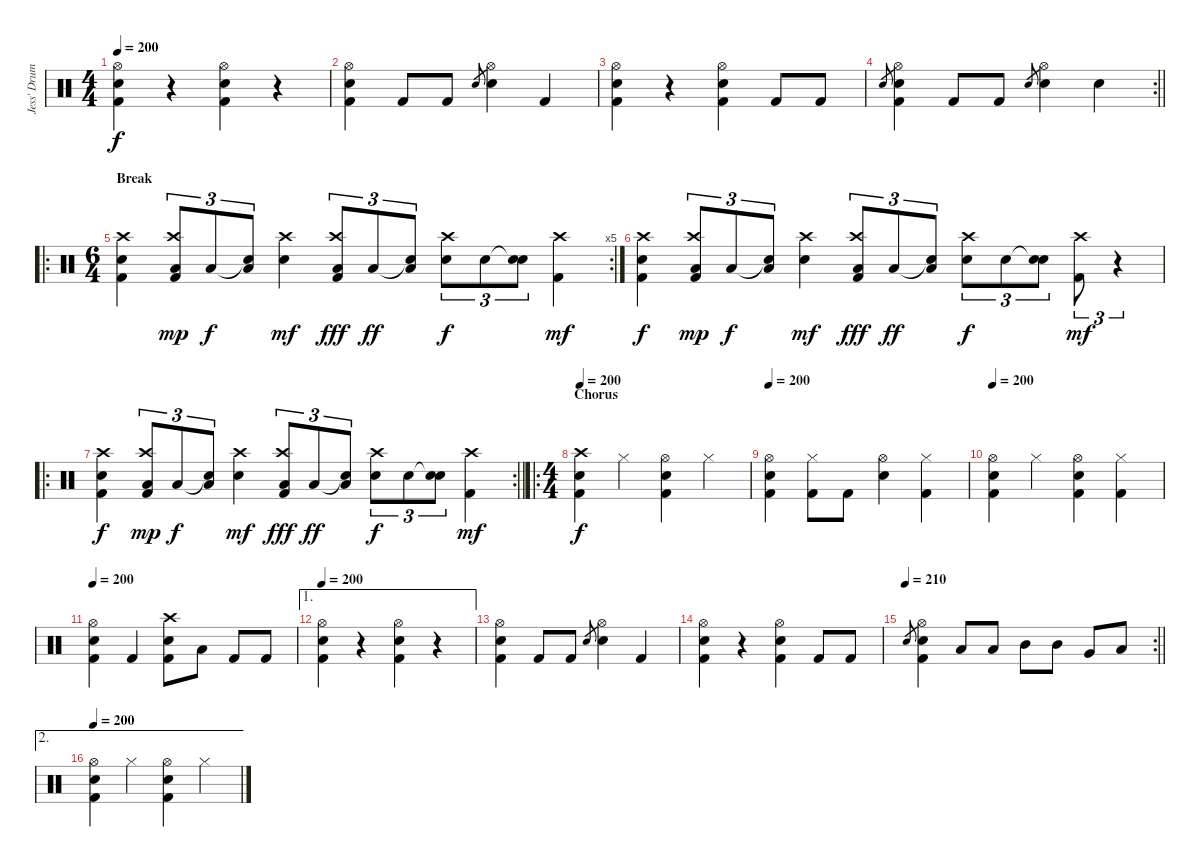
\track ("Jess' Drums" "Jess' Drum") {instrument percussion}
\staff {score}
\articulation defaults
\ts (4 4)
\tempo 200
\clef neutral
\ks c
("Hi-Hat (open)" "Snare (hit) 2" "Kick (hit) 2").4{dy f} r.4 ("Hi-Hat (open)" "Snare (hit) 2" "Kick (hit) 2").4 r.4 |
("Hi-Hat (open)" "Snare (hit) 2" "Kick (hit) 2").4 "Kick (hit) 2".8 "Kick (hit) 2".8 "Snare (hit) 2".8{gr} ("Hi-Hat (open)" "Snare (hit) 2").4 "Kick (hit) 2".4 |
("Hi-Hat (open)" "Snare (hit) 2" "Kick (hit) 2").4 r.4 ("Hi-Hat (open)" "Snare (hit) 2" "Kick (hit) 2").4 "Kick (hit) 2".8 "Kick (hit) 2".8 |
\rc 2
\barLineRight lightlight "Snare (hit) 2".8{gr}
("Hi-Hat (open)" "Snare (hit) 2" "Kick (hit) 2").4 "Kick (hit) 2".8 "Kick (hit) 2".8 "Snare (hit) 2".8{gr} ("Hi-Hat (open)" "Snare (hit) 2").4 "Snare (hit) 2".4 |
\ro
\rc 5
\ts (6 4)
\section ("" "Break")
("Crash high (hit)" "Snare (hit) 2" "Kick (hit) 2").4 ("Crash high (hit)" "Low Floor Tom (hit)" "Kick (hit) 2").8{tu (3 2) dy mp} "Low Floor Tom (hit)".8{tu (3 2) dy f} ("Snare (hit)"{t} "Low Floor Tom (hit)").8{tu (3 2)} ("Crash high (hit)" "Snare (hit) 2").4{dy mf} ("Crash high (hit)" "Low Floor Tom (hit)" "Kick (hit) 2").8{tu (3 2) dy fff} "Low Floor Tom (hit)".8{tu (3 2) dy ff} ("Snare (hit)"{t} "Low Floor Tom (hit)").8{tu (3 2)} ("Crash high (hit)" "Snare (hit) 2").8{tu (3 2) dy f} "Snare (hit) 2".8{tu (3 2)} ("Snare (hit)"{t} "Snare (hit) 2").8{tu (3 2)} ("Crash high (hit)" "Kick (hit) 2").4{dy mf} |
("Crash high (hit)" "Snare (hit) 2" "Kick (hit) 2").4{dy f} ("Crash high (hit)" "Low Floor Tom (hit)" "Kick (hit) 2").8{tu (3 2) dy mp} "Low Floor Tom (hit)".8{tu (3 2) dy f} ("Snare (hit)"{t} "Low Floor Tom (hit)").8{tu (3 2)} ("Crash high (hit)" "Snare (hit) 2").4{dy mf} ("Crash high (hit)" "Low Floor Tom (hit)" "Kick (hit) 2").8{tu (3 2) dy fff} "Low Floor Tom (hit)".8{tu (3 2) dy ff} ("Snare (hit)"{t} "Low Floor Tom (hit)").8{tu (3 2)} ("Crash high (hit)" "Snare (hit) 2").8{tu (3 2) dy f} "Snare (hit) 2".8{tu (3 2)} ("Snare (hit)"{t} "Snare (hit) 2").8{tu (3 2)} ("Crash high (hit)" "Kick (hit) 2").8{tu (3 2) dy mf} r.4{tu (3 2)} |
\ro
\rc 2
\barLineRight lightlight
("Crash high (hit)" "Snare (hit) 2" "Kick (hit) 2").4{dy f} ("Crash high (hit)" "Low Floor Tom (hit)" "Kick (hit) 2").8{tu (3 2) dy mp} "Low Floor Tom (hit)".8{tu (3 2) dy f} ("Snare (hit)"{t} "Low Floor Tom (hit)").8{tu (3 2)} ("Crash high (hit)" "Snare (hit) 2").4{dy mf} ("Crash high (hit)" "Low Floor Tom (hit)" "Kick (hit) 2").8{tu (3 2) dy fff} "Low Floor Tom (hit)".8{tu (3 2) dy ff} ("Snare (hit)"{t} "Low Floor Tom (hit)").8{tu (3 2)} ("Crash high (hit)" "Snare (hit) 2").8{tu (3 2) dy f} "Snare (hit) 2".8{tu (3 2)} ("Snare (hit)"{t} "Snare (hit) 2").8{tu (3 2)} ("Crash high (hit)" "Kick (hit) 2").4{dy mf} |
\ro
\ts (4 4)
\section ("" "Chorus")
\tempo 200
("Crash high (hit)" "Snare (hit) 2" "Kick (hit) 2").4{dy f} "Hi-Hat (closed)".4 ("Hi-Hat (open)" "Snare (hit) 2" "Kick (hit) 2").4 "Hi-Hat (closed)".4 |
\tempo 200
("Hi-Hat (open)" "Snare (hit) 2" "Kick (hit) 2").4 ("Hi-Hat (closed)" "Kick (hit) 2").8 "Kick (hit) 2".8 ("Hi-Hat (open)" "Snare (hit) 2").4 ("Hi-Hat (closed)" "Kick (hit) 2").4 |
\tempo 200
("Hi-Hat (open)" "Snare (hit) 2" "Kick (hit) 2").4 "Hi-Hat (closed)".4 ("Hi-Hat (open)" "Snare (hit) 2" "Kick (hit) 2").4 ("Hi-Hat (closed)" "Kick (hit) 2").4 |
\tempo 200
("Hi-Hat (open)" "Snare (hit) 2" "Kick (hit) 2").4 "Kick (hit) 2".4 ("Crash high (hit)" "Snare (hit) 2" "Kick (hit) 2").8 "Low Floor Tom (hit)".8 "Kick (hit) 2".8 "Kick (hit) 2".8 |
\ae 1
\tempo 200
("Hi-Hat (open)" "Snare (hit) 2" "Kick (hit) 2").4 r.4 ("Hi-Hat (open)" "Snare (hit) 2" "Kick (hit) 2").4 r.4 |
("Hi-Hat (open)" "Snare (hit) 2" "Kick (hit) 2").4 "Kick (hit) 2".8 "Kick (hit) 2".8 "Snare (hit) 2".8{gr} ("Hi-Hat (open)" "Snare (hit) 2").4 "Kick (hit) 2".4 |
("Hi-Hat (open)" "Snare (hit) 2" "Kick (hit) 2").4 r.4 ("Hi-Hat (open)" "Snare (hit) 2" "Kick (hit) 2").4 "Kick (hit) 2".8 "Kick (hit) 2".8 |
\rc 2
\tempo 210
\barLineRight lightlight "Snare (hit) 2".8{gr}
("Hi-Hat (open)" "Snare (hit) 2" "Kick (hit) 2").4 "Low Tom (hit)".8 "Low Tom (hit)".8 "Mid Tom (hit)".8 "Mid Tom (hit)".8 "Very Low Tom (hit)".8 "Low Floor Tom (hit)".8 |
\ae 2
\tempo 200
("Hi-Hat (open)" "Snare (hit) 2" "Kick (hit) 2").4 "Hi-Hat (closed)".4 ("Hi-Hat (open)" "Snare (hit) 2" "Kick (hit) 2").4 "Hi-Hat (closed)".4
